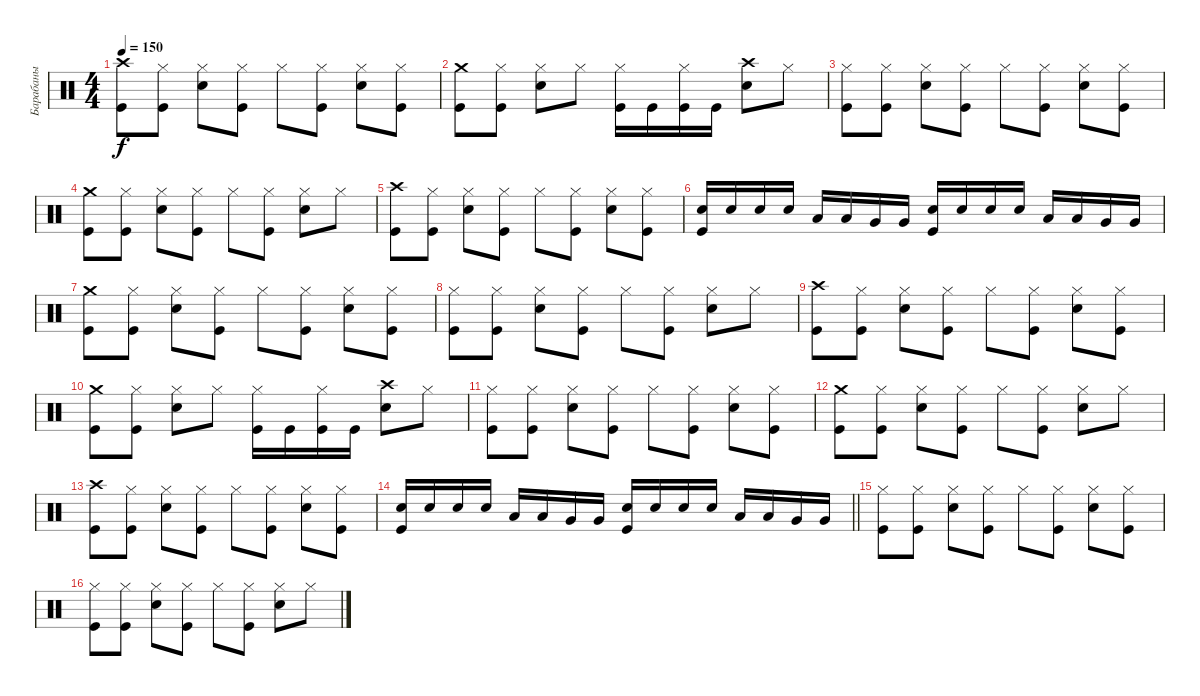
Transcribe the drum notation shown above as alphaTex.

\track ("Барабаны" "Барабаны") {instrument percussion}
\staff {score}
\articulation defaults
\ts (4 4)
\tempo 150
\clef neutral
\ks c
("Crash high (hit)" "Kick (hit)").8{dy f} ("Hi-Hat (closed)" "Kick (hit)").8 ("Hi-Hat (closed)" "Electric Snare (hit)").8 ("Hi-Hat (closed)" "Kick (hit)").8 "Hi-Hat (closed)".8 ("Hi-Hat (closed)" "Kick (hit)").8 ("Hi-Hat (closed)" "Electric Snare (hit)").8 ("Hi-Hat (closed)" "Kick (hit)").8 |
("Crash medium (hit)" "Kick (hit)").8 ("Hi-Hat (closed)" "Kick (hit)").8 ("Hi-Hat (closed)" "Electric Snare (hit)").8 "Hi-Hat (closed)".8 ("Hi-Hat (closed)" "Kick (hit)").16 "Kick (hit)".16 ("Hi-Hat (closed)" "Kick (hit)").16 "Kick (hit)".16 ("Crash high (hit)" "Electric Snare (hit)").8 "Hi-Hat (closed)".8 |
("Hi-Hat (closed)" "Kick (hit)").8 ("Hi-Hat (closed)" "Kick (hit)").8 ("Hi-Hat (closed)" "Electric Snare (hit)").8 ("Hi-Hat (closed)" "Kick (hit)").8 "Hi-Hat (closed)".8 ("Hi-Hat (closed)" "Kick (hit)").8 ("Hi-Hat (closed)" "Electric Snare (hit)").8 ("Hi-Hat (closed)" "Kick (hit)").8 |
("Crash medium (hit)" "Kick (hit)").8 ("Hi-Hat (closed)" "Kick (hit)").8 ("Hi-Hat (closed)" "Electric Snare (hit)").8 ("Hi-Hat (closed)" "Kick (hit)").8 "Hi-Hat (closed)".8 ("Hi-Hat (closed)" "Kick (hit)").8 ("Hi-Hat (closed)" "Electric Snare (hit)").8 "Hi-Hat (closed)".8 |
("Crash high (hit)" "Kick (hit)").8 ("Hi-Hat (closed)" "Kick (hit)").8 ("Hi-Hat (closed)" "Electric Snare (hit)").8 ("Hi-Hat (closed)" "Kick (hit)").8 "Hi-Hat (closed)".8 ("Hi-Hat (closed)" "Kick (hit)").8 ("Hi-Hat (closed)" "Electric Snare (hit)").8 ("Hi-Hat (closed)" "Kick (hit)").8 |
("Electric Snare (hit)" "Kick (hit)").16 "Electric Snare (hit)".16 "Electric Snare (hit)".16 "Electric Snare (hit)".16 "Low Tom (hit)".16 "Low Tom (hit)".16 "Very Low Tom (hit)".16 "Very Low Tom (hit)".16 ("Electric Snare (hit)" "Kick (hit)").16 "Electric Snare (hit)".16 "Electric Snare (hit)".16 "Electric Snare (hit)".16 "Low Tom (hit)".16 "Low Tom (hit)".16 "Very Low Tom (hit)".16 "Very Low Tom (hit)".16 |
("Crash medium (hit)" "Kick (hit)").8 ("Hi-Hat (closed)" "Kick (hit)").8 ("Hi-Hat (closed)" "Electric Snare (hit)").8 ("Hi-Hat (closed)" "Kick (hit)").8 "Hi-Hat (closed)".8 ("Hi-Hat (closed)" "Kick (hit)").8 ("Hi-Hat (closed)" "Electric Snare (hit)").8 ("Hi-Hat (closed)" "Kick (hit)").8 |
("Hi-Hat (closed)" "Kick (hit)").8 ("Hi-Hat (closed)" "Kick (hit)").8 ("Hi-Hat (closed)" "Electric Snare (hit)").8 ("Hi-Hat (closed)" "Kick (hit)").8 "Hi-Hat (closed)".8 ("Hi-Hat (closed)" "Kick (hit)").8 ("Hi-Hat (closed)" "Electric Snare (hit)").8 "Hi-Hat (closed)".8 |
("Crash high (hit)" "Kick (hit)").8 ("Hi-Hat (closed)" "Kick (hit)").8 ("Hi-Hat (closed)" "Electric Snare (hit)").8 ("Hi-Hat (closed)" "Kick (hit)").8 "Hi-Hat (closed)".8 ("Hi-Hat (closed)" "Kick (hit)").8 ("Hi-Hat (closed)" "Electric Snare (hit)").8 ("Hi-Hat (closed)" "Kick (hit)").8 |
("Crash medium (hit)" "Kick (hit)").8 ("Hi-Hat (closed)" "Kick (hit)").8 ("Hi-Hat (closed)" "Electric Snare (hit)").8 "Hi-Hat (closed)".8 ("Hi-Hat (closed)" "Kick (hit)").16 "Kick (hit)".16 ("Hi-Hat (closed)" "Kick (hit)").16 "Kick (hit)".16 ("Crash high (hit)" "Electric Snare (hit)").8 "Hi-Hat (closed)".8 |
("Hi-Hat (closed)" "Kick (hit)").8 ("Hi-Hat (closed)" "Kick (hit)").8 ("Hi-Hat (closed)" "Electric Snare (hit)").8 ("Hi-Hat (closed)" "Kick (hit)").8 "Hi-Hat (closed)".8 ("Hi-Hat (closed)" "Kick (hit)").8 ("Hi-Hat (closed)" "Electric Snare (hit)").8 ("Hi-Hat (closed)" "Kick (hit)").8 |
("Crash medium (hit)" "Kick (hit)").8 ("Hi-Hat (closed)" "Kick (hit)").8 ("Hi-Hat (closed)" "Electric Snare (hit)").8 ("Hi-Hat (closed)" "Kick (hit)").8 "Hi-Hat (closed)".8 ("Hi-Hat (closed)" "Kick (hit)").8 ("Hi-Hat (closed)" "Electric Snare (hit)").8 "Hi-Hat (closed)".8 |
("Crash high (hit)" "Kick (hit)").8 ("Hi-Hat (closed)" "Kick (hit)").8 ("Hi-Hat (closed)" "Electric Snare (hit)").8 ("Hi-Hat (closed)" "Kick (hit)").8 "Hi-Hat (closed)".8 ("Hi-Hat (closed)" "Kick (hit)").8 ("Hi-Hat (closed)" "Electric Snare (hit)").8 ("Hi-Hat (closed)" "Kick (hit)").8 |
\barLineRight lightlight
("Electric Snare (hit)" "Kick (hit)").16 "Electric Snare (hit)".16 "Electric Snare (hit)".16 "Electric Snare (hit)".16 "Low Tom (hit)".16 "Low Tom (hit)".16 "Very Low Tom (hit)".16 "Very Low Tom (hit)".16 ("Electric Snare (hit)" "Kick (hit)").16 "Electric Snare (hit)".16 "Electric Snare (hit)".16 "Electric Snare (hit)".16 "Low Tom (hit)".16 "Low Tom (hit)".16 "Very Low Tom (hit)".16 "Very Low Tom (hit)".16 |
("Hi-Hat (closed)" "Kick (hit)").8 ("Hi-Hat (closed)" "Kick (hit)").8 ("Hi-Hat (closed)" "Electric Snare (hit)").8 ("Hi-Hat (closed)" "Kick (hit)").8 "Hi-Hat (closed)".8 ("Hi-Hat (closed)" "Kick (hit)").8 ("Hi-Hat (closed)" "Electric Snare (hit)").8 ("Hi-Hat (closed)" "Kick (hit)").8 |
("Hi-Hat (closed)" "Kick (hit)").8 ("Hi-Hat (closed)" "Kick (hit)").8 ("Hi-Hat (closed)" "Electric Snare (hit)").8 ("Hi-Hat (closed)" "Kick (hit)").8 "Hi-Hat (closed)".8 ("Hi-Hat (closed)" "Kick (hit)").8 ("Hi-Hat (closed)" "Electric Snare (hit)").8 "Hi-Hat (closed)".8
